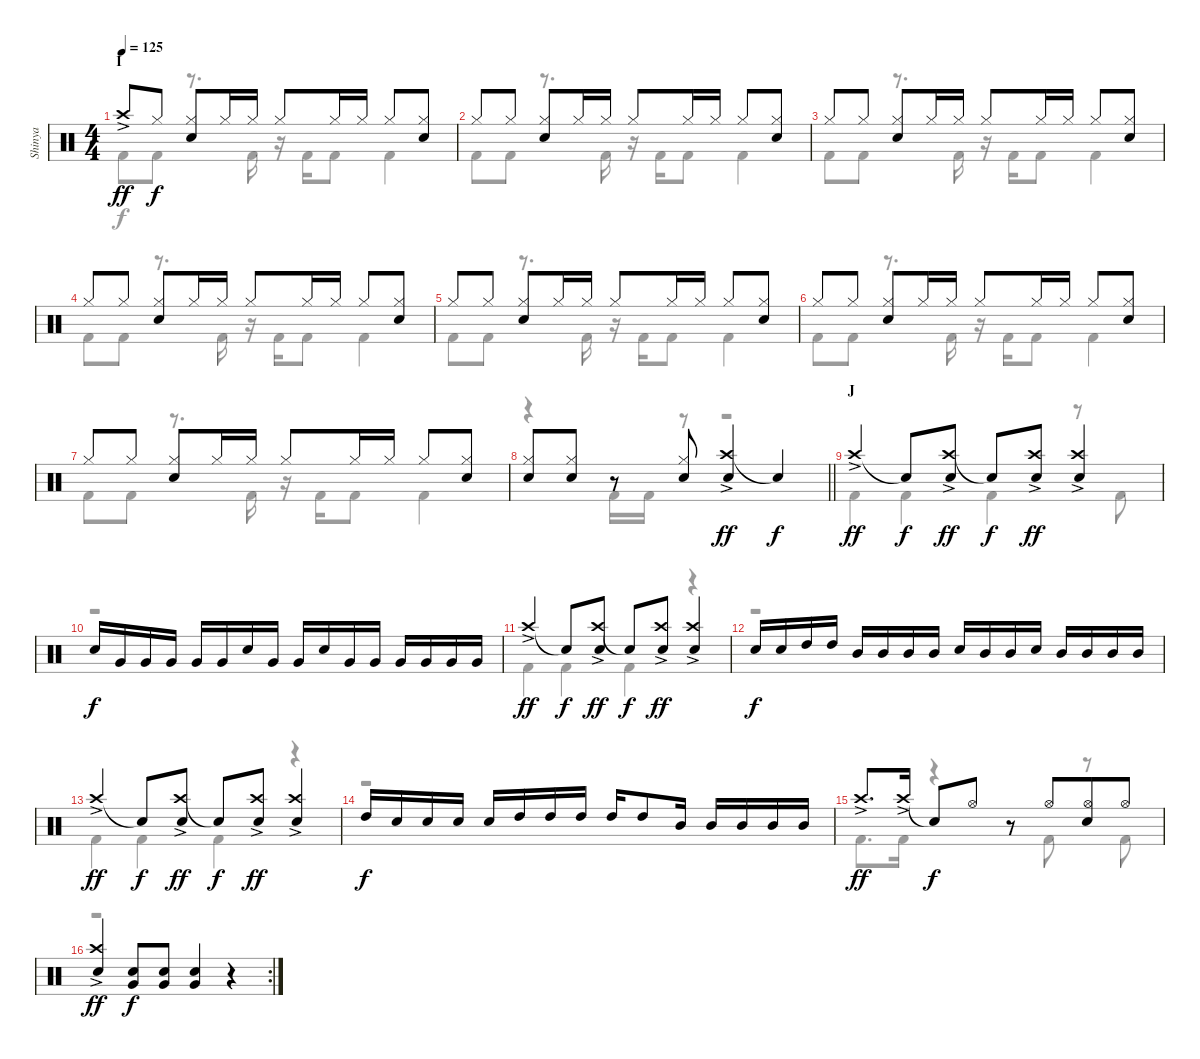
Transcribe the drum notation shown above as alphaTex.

\track ("Shinya" "Shinya") {instrument percussion}
\staff {score}
\articulation defaults
\voice
\ts (4 4)
\section ("" "I")
\tempo 125
\clef neutral
\ks c "Crash high (hit)"{ac}.8{dy ff} "Hi-Hat (closed)".8{dy f}
("Hi-Hat (closed)" "Snare (hit) 2").8 "Hi-Hat (closed)".16 "Hi-Hat (closed)".16 "Hi-Hat (closed)".8 "Hi-Hat (closed)".16 "Hi-Hat (closed)".16 "Hi-Hat (closed)".8 ("Hi-Hat (closed)" "Snare (hit) 2").8 |
"Hi-Hat (closed)".8 "Hi-Hat (closed)".8 ("Hi-Hat (closed)" "Snare (hit) 2").8 "Hi-Hat (closed)".16 "Hi-Hat (closed)".16 "Hi-Hat (closed)".8 "Hi-Hat (closed)".16 "Hi-Hat (closed)".16 "Hi-Hat (closed)".8 ("Hi-Hat (closed)" "Snare (hit) 2").8 |
"Hi-Hat (closed)".8 "Hi-Hat (closed)".8 ("Hi-Hat (closed)" "Snare (hit) 2").8 "Hi-Hat (closed)".16 "Hi-Hat (closed)".16 "Hi-Hat (closed)".8 "Hi-Hat (closed)".16 "Hi-Hat (closed)".16 "Hi-Hat (closed)".8 ("Hi-Hat (closed)" "Snare (hit) 2").8 |
"Hi-Hat (closed)".8 "Hi-Hat (closed)".8 ("Hi-Hat (closed)" "Snare (hit) 2").8 "Hi-Hat (closed)".16 "Hi-Hat (closed)".16 "Hi-Hat (closed)".8 "Hi-Hat (closed)".16 "Hi-Hat (closed)".16 "Hi-Hat (closed)".8 ("Hi-Hat (closed)" "Snare (hit) 2").8 |
"Hi-Hat (closed)".8 "Hi-Hat (closed)".8 ("Hi-Hat (closed)" "Snare (hit) 2").8 "Hi-Hat (closed)".16 "Hi-Hat (closed)".16 "Hi-Hat (closed)".8 "Hi-Hat (closed)".16 "Hi-Hat (closed)".16 "Hi-Hat (closed)".8 ("Hi-Hat (closed)" "Snare (hit) 2").8 |
"Hi-Hat (closed)".8 "Hi-Hat (closed)".8 ("Hi-Hat (closed)" "Snare (hit) 2").8 "Hi-Hat (closed)".16 "Hi-Hat (closed)".16 "Hi-Hat (closed)".8 "Hi-Hat (closed)".16 "Hi-Hat (closed)".16 "Hi-Hat (closed)".8 ("Hi-Hat (closed)" "Snare (hit) 2").8 |
"Hi-Hat (closed)".8 "Hi-Hat (closed)".8 ("Hi-Hat (closed)" "Snare (hit) 2").8 "Hi-Hat (closed)".16 "Hi-Hat (closed)".16 "Hi-Hat (closed)".8 "Hi-Hat (closed)".16 "Hi-Hat (closed)".16 "Hi-Hat (closed)".8 ("Hi-Hat (closed)" "Snare (hit) 2").8 |
\barLineRight lightlight
("Hi-Hat (closed)" "Snare (hit) 2").8 ("Hi-Hat (closed)" "Snare (hit) 2").8 r.8 ("Hi-Hat (closed)" "Snare (hit) 2").8 ("Crash high (hit)"{ac} "Snare (hit) 2").4{dy ff} "Snare (hit)"{t}.4{dy f} |
\section ("" "J")
"Crash high (hit)"{ac}.4{dy ff} "Snare (hit)"{t}.8{dy f} ("Crash high (hit)"{ac} "Snare (hit) 2").8{dy ff} "Snare (hit)"{t}.8{dy f} ("Crash high (hit)"{ac} "Snare (hit) 2").8{dy ff} ("Crash high (hit)"{ac} "Snare (hit) 2").4 |
"Snare (hit) 2".16{dy f} "Very Low Tom (hit)".16 "Very Low Tom (hit)".16 "Very Low Tom (hit)".16 "Very Low Tom (hit)".16 "Very Low Tom (hit)".16 "Snare (hit) 2".16 "Very Low Tom (hit)".16 "Very Low Tom (hit)".16 "Snare (hit) 2".16 "Very Low Tom (hit)".16 "Very Low Tom (hit)".16 "Very Low Tom (hit)".16 "Very Low Tom (hit)".16 "Very Low Tom (hit)".16 "Very Low Tom (hit)".16 |
"Crash high (hit)"{ac}.4{dy ff} "Snare (hit)"{t}.8{dy f} ("Crash high (hit)"{ac} "Snare (hit) 2").8{dy ff} "Snare (hit)"{t}.8{dy f} ("Crash high (hit)"{ac} "Snare (hit) 2").8{dy ff} ("Crash high (hit)"{ac} "Snare (hit) 2").4 |
"Snare (hit) 2".16{dy f} "Snare (hit) 2".16 "High Tom (hit)".16 "High Tom (hit)".16 "Mid Tom (hit)".16 "Mid Tom (hit)".16 "Mid Tom (hit)".16 "Mid Tom (hit)".16 "Snare (hit) 2".16 "Mid Tom (hit)".16 "Mid Tom (hit)".16 "Snare (hit) 2".16 "Mid Tom (hit)".16 "Mid Tom (hit)".16 "Mid Tom (hit)".16 "Mid Tom (hit)".16 |
"Crash high (hit)"{ac}.4{dy ff} "Snare (hit)"{t}.8{dy f} ("Crash high (hit)"{ac} "Snare (hit) 2").8{dy ff} "Snare (hit)"{t}.8{dy f} ("Crash high (hit)"{ac} "Snare (hit) 2").8{dy ff} ("Crash high (hit)"{ac} "Snare (hit) 2").4 |
"High Tom (hit)".16{dy f} "Snare (hit) 2".16 "Snare (hit) 2".16 "Snare (hit) 2".16 "Snare (hit) 2".16 "High Tom (hit)".16 "High Tom (hit)".16 "High Tom (hit)".16 "High Tom (hit)".16 "High Tom (hit)".8 "Mid Tom (hit)".16 "Mid Tom (hit)".16 "Mid Tom (hit)".16 "Mid Tom (hit)".16 "Mid Tom (hit)".16 |
"Crash high (hit)"{ac}.8{d dy ff} "Crash high (hit)"{ac}.16 "Snare (hit)"{t}.8{dy f} "Hi-Hat (open)".8 r.8 "Hi-Hat (open)".8{beam merge} ("Hi-Hat (open)" "Snare (hit) 2").8 "Hi-Hat (open)".8 |
\rc 2
("Crash high (hit)"{ac} "Snare (hit) 2").4{dy ff} ("Snare (hit) 2" "Very Low Tom (hit)").8{dy f} ("Snare (hit) 2" "Very Low Tom (hit)").8 ("Snare (hit) 2" "Very Low Tom (hit)").4 r.4
\voice
\clef neutral
\ottava regular
\simile none
\ks c "Kick (hit) 2".8{dy f} "Kick (hit) 2".8
r.8{d} "Kick (hit) 2".16 r.16 "Kick (hit) 2".16 "Kick (hit) 2".8 "Kick (hit) 2".4 |
"Kick (hit) 2".8 "Kick (hit) 2".8 r.8{d} "Kick (hit) 2".16 r.16 "Kick (hit) 2".16 "Kick (hit) 2".8 "Kick (hit) 2".4 |
"Kick (hit) 2".8 "Kick (hit) 2".8 r.8{d} "Kick (hit) 2".16 r.16 "Kick (hit) 2".16 "Kick (hit) 2".8 "Kick (hit) 2".4 |
"Kick (hit) 2".8 "Kick (hit) 2".8 r.8{d} "Kick (hit) 2".16 r.16 "Kick (hit) 2".16 "Kick (hit) 2".8 "Kick (hit) 2".4 |
"Kick (hit) 2".8 "Kick (hit) 2".8 r.8{d} "Kick (hit) 2".16 r.16 "Kick (hit) 2".16 "Kick (hit) 2".8 "Kick (hit) 2".4 |
"Kick (hit) 2".8 "Kick (hit) 2".8 r.8{d} "Kick (hit) 2".16 r.16 "Kick (hit) 2".16 "Kick (hit) 2".8 "Kick (hit) 2".4 |
"Kick (hit) 2".8 "Kick (hit) 2".8 r.8{d} "Kick (hit) 2".16 r.16 "Kick (hit) 2".16 "Kick (hit) 2".8 "Kick (hit) 2".4 |
\barLineRight lightlight
r.4 "Kick (hit) 2".16 "Kick (hit) 2".16 r.8 r.2 |
"Kick (hit) 2".4 "Kick (hit) 2".4 "Kick (hit) 2".4 r.8 "Kick (hit) 2".8 |
r.1 |
"Kick (hit) 2".4 "Kick (hit) 2".4 "Kick (hit) 2".4 r.4 |
r.1 |
"Kick (hit) 2".4 "Kick (hit) 2".4 "Kick (hit) 2".4 r.4 |
r.1 |
"Kick (hit) 2".8{d} "Kick (hit) 2".16 r.4 r.8 "Kick (hit) 2".8 r.8 "Kick (hit) 2".8 |
r.1
